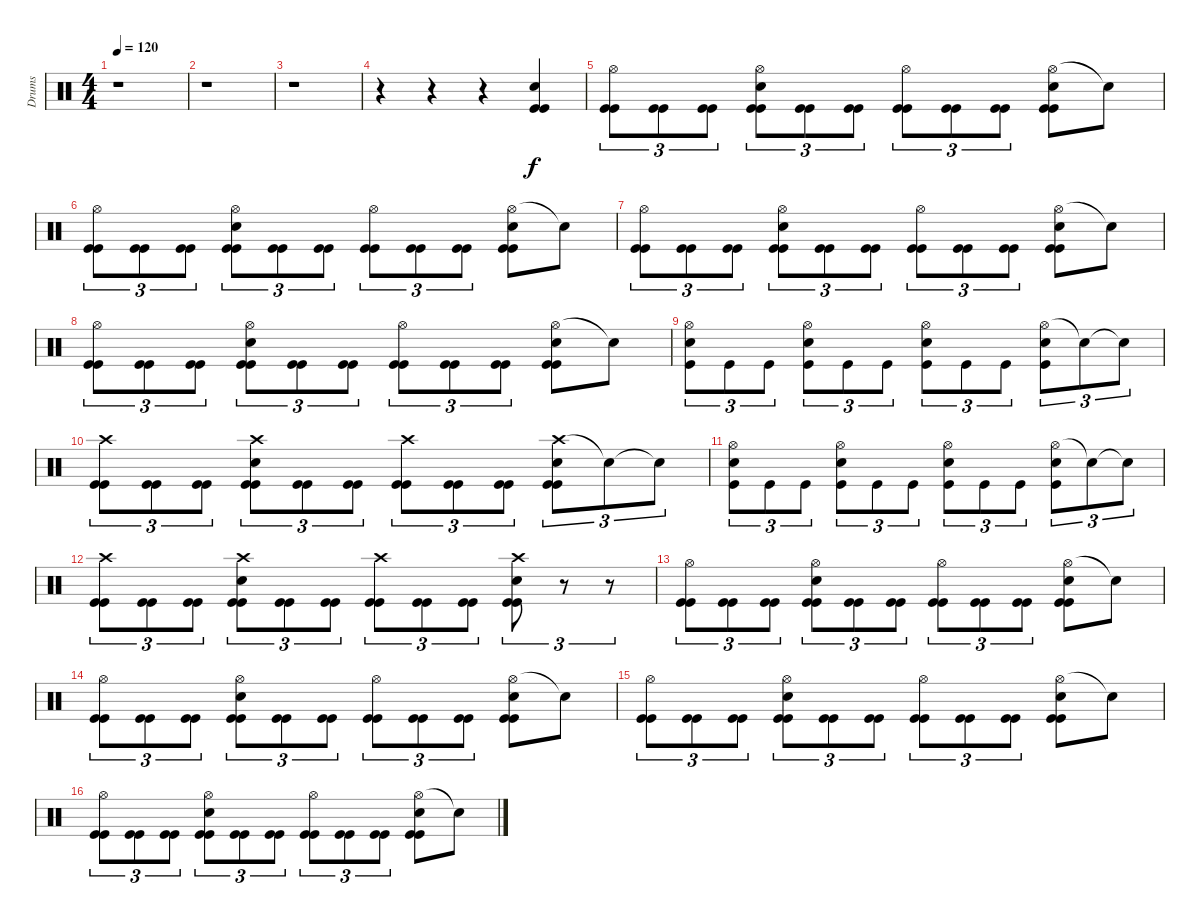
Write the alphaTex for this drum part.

\track ("Drums" "Drums") {instrument percussion}
\staff {score}
\articulation defaults
\ts (4 4)
\tempo 120
\clef neutral
\ks c
r.1{dy f} |
r.1 |
r.1 |
r.4 r.4 r.4 ("Snare (hit) 2" "Kick (hit)" "Kick (hit)").4 |
("Hi-Hat (open)" "Kick (hit)" "Kick (hit)").8{tu (3 2)} ("Kick (hit)" "Kick (hit)").8{tu (3 2)} ("Kick (hit)" "Kick (hit)").8{tu (3 2)} ("Hi-Hat (open)" "Snare (hit) 2" "Kick (hit)" "Kick (hit)").8{tu (3 2)} ("Kick (hit)" "Kick (hit)").8{tu (3 2)} ("Kick (hit)" "Kick (hit)").8{tu (3 2)} ("Hi-Hat (open)" "Kick (hit)" "Kick (hit)").8{tu (3 2)} ("Kick (hit)" "Kick (hit)").8{tu (3 2)} ("Kick (hit)" "Kick (hit)").8{tu (3 2)} ("Hi-Hat (open)" "Snare (hit) 2" "Kick (hit)" "Kick (hit)").8 "Snare (hit)"{t}.8 |
("Hi-Hat (open)" "Kick (hit)" "Kick (hit)").8{tu (3 2)} ("Kick (hit)" "Kick (hit)").8{tu (3 2)} ("Kick (hit)" "Kick (hit)").8{tu (3 2)} ("Hi-Hat (open)" "Snare (hit) 2" "Kick (hit)" "Kick (hit)").8{tu (3 2)} ("Kick (hit)" "Kick (hit)").8{tu (3 2)} ("Kick (hit)" "Kick (hit)").8{tu (3 2)} ("Hi-Hat (open)" "Kick (hit)" "Kick (hit)").8{tu (3 2)} ("Kick (hit)" "Kick (hit)").8{tu (3 2)} ("Kick (hit)" "Kick (hit)").8{tu (3 2)} ("Hi-Hat (open)" "Snare (hit) 2" "Kick (hit)" "Kick (hit)").8 "Snare (hit)"{t}.8 |
("Hi-Hat (open)" "Kick (hit)" "Kick (hit)").8{tu (3 2)} ("Kick (hit)" "Kick (hit)").8{tu (3 2)} ("Kick (hit)" "Kick (hit)").8{tu (3 2)} ("Hi-Hat (open)" "Snare (hit) 2" "Kick (hit)" "Kick (hit)").8{tu (3 2)} ("Kick (hit)" "Kick (hit)").8{tu (3 2)} ("Kick (hit)" "Kick (hit)").8{tu (3 2)} ("Hi-Hat (open)" "Kick (hit)" "Kick (hit)").8{tu (3 2)} ("Kick (hit)" "Kick (hit)").8{tu (3 2)} ("Kick (hit)" "Kick (hit)").8{tu (3 2)} ("Hi-Hat (open)" "Snare (hit) 2" "Kick (hit)" "Kick (hit)").8 "Snare (hit)"{t}.8 |
("Hi-Hat (open)" "Kick (hit)" "Kick (hit)").8{tu (3 2)} ("Kick (hit)" "Kick (hit)").8{tu (3 2)} ("Kick (hit)" "Kick (hit)").8{tu (3 2)} ("Hi-Hat (open)" "Snare (hit) 2" "Kick (hit)" "Kick (hit)").8{tu (3 2)} ("Kick (hit)" "Kick (hit)").8{tu (3 2)} ("Kick (hit)" "Kick (hit)").8{tu (3 2)} ("Hi-Hat (open)" "Kick (hit)" "Kick (hit)").8{tu (3 2)} ("Kick (hit)" "Kick (hit)").8{tu (3 2)} ("Kick (hit)" "Kick (hit)").8{tu (3 2)} ("Hi-Hat (open)" "Snare (hit) 2" "Kick (hit)" "Kick (hit)").8 "Snare (hit)"{t}.8 |
("Hi-Hat (open)" "Snare (hit) 2" "Kick (hit)").8{tu (3 2)} "Kick (hit)".8{tu (3 2)} "Kick (hit)".8{tu (3 2)} ("Hi-Hat (open)" "Snare (hit) 2" "Kick (hit)").8{tu (3 2)} "Kick (hit)".8{tu (3 2)} "Kick (hit)".8{tu (3 2)} ("Hi-Hat (open)" "Snare (hit) 2" "Kick (hit)").8{tu (3 2)} "Kick (hit)".8{tu (3 2)} "Kick (hit)".8{tu (3 2)} ("Hi-Hat (open)" "Snare (hit) 2" "Kick (hit)").8{tu (3 2)} "Snare (hit)"{t}.8{tu (3 2)} "Snare (hit)"{t}.8{tu (3 2)} |
("Crash high (hit)" "Kick (hit)" "Kick (hit)").8{tu (3 2)} ("Kick (hit)" "Kick (hit)").8{tu (3 2)} ("Kick (hit)" "Kick (hit)").8{tu (3 2)} ("Crash high (hit)" "Snare (hit) 2" "Kick (hit)" "Kick (hit)").8{tu (3 2)} ("Kick (hit)" "Kick (hit)").8{tu (3 2)} ("Kick (hit)" "Kick (hit)").8{tu (3 2)} ("Crash high (hit)" "Kick (hit)" "Kick (hit)").8{tu (3 2)} ("Kick (hit)" "Kick (hit)").8{tu (3 2)} ("Kick (hit)" "Kick (hit)").8{tu (3 2)} ("Crash high (hit)" "Snare (hit) 2" "Kick (hit)" "Kick (hit)").8{tu (3 2)} "Snare (hit)"{t}.8{tu (3 2)} "Snare (hit)"{t}.8{tu (3 2)} |
("Hi-Hat (open)" "Snare (hit) 2" "Kick (hit)").8{tu (3 2)} "Kick (hit)".8{tu (3 2)} "Kick (hit)".8{tu (3 2)} ("Hi-Hat (open)" "Snare (hit) 2" "Kick (hit)").8{tu (3 2)} "Kick (hit)".8{tu (3 2)} "Kick (hit)".8{tu (3 2)} ("Hi-Hat (open)" "Snare (hit) 2" "Kick (hit)").8{tu (3 2)} "Kick (hit)".8{tu (3 2)} "Kick (hit)".8{tu (3 2)} ("Hi-Hat (open)" "Snare (hit) 2" "Kick (hit)").8{tu (3 2)} "Snare (hit)"{t}.8{tu (3 2)} "Snare (hit)"{t}.8{tu (3 2)} |
("Crash high (hit)" "Kick (hit)" "Kick (hit)").8{tu (3 2)} ("Kick (hit)" "Kick (hit)").8{tu (3 2)} ("Kick (hit)" "Kick (hit)").8{tu (3 2)} ("Crash high (hit)" "Snare (hit) 2" "Kick (hit)" "Kick (hit)").8{tu (3 2)} ("Kick (hit)" "Kick (hit)").8{tu (3 2)} ("Kick (hit)" "Kick (hit)").8{tu (3 2)} ("Crash high (hit)" "Kick (hit)" "Kick (hit)").8{tu (3 2)} ("Kick (hit)" "Kick (hit)").8{tu (3 2)} ("Kick (hit)" "Kick (hit)").8{tu (3 2)} ("Crash high (hit)" "Snare (hit) 2" "Kick (hit)" "Kick (hit)").8{tu (3 2)} r.8{tu (3 2)} r.8{tu (3 2)} |
("Hi-Hat (open)" "Kick (hit)" "Kick (hit)").8{tu (3 2)} ("Kick (hit)" "Kick (hit)").8{tu (3 2)} ("Kick (hit)" "Kick (hit)").8{tu (3 2)} ("Hi-Hat (open)" "Snare (hit) 2" "Kick (hit)" "Kick (hit)").8{tu (3 2)} ("Kick (hit)" "Kick (hit)").8{tu (3 2)} ("Kick (hit)" "Kick (hit)").8{tu (3 2)} ("Hi-Hat (open)" "Kick (hit)" "Kick (hit)").8{tu (3 2)} ("Kick (hit)" "Kick (hit)").8{tu (3 2)} ("Kick (hit)" "Kick (hit)").8{tu (3 2)} ("Hi-Hat (open)" "Snare (hit) 2" "Kick (hit)" "Kick (hit)").8 "Snare (hit)"{t}.8 |
("Hi-Hat (open)" "Kick (hit)" "Kick (hit)").8{tu (3 2)} ("Kick (hit)" "Kick (hit)").8{tu (3 2)} ("Kick (hit)" "Kick (hit)").8{tu (3 2)} ("Hi-Hat (open)" "Snare (hit) 2" "Kick (hit)" "Kick (hit)").8{tu (3 2)} ("Kick (hit)" "Kick (hit)").8{tu (3 2)} ("Kick (hit)" "Kick (hit)").8{tu (3 2)} ("Hi-Hat (open)" "Kick (hit)" "Kick (hit)").8{tu (3 2)} ("Kick (hit)" "Kick (hit)").8{tu (3 2)} ("Kick (hit)" "Kick (hit)").8{tu (3 2)} ("Hi-Hat (open)" "Snare (hit) 2" "Kick (hit)" "Kick (hit)").8 "Snare (hit)"{t}.8 |
("Hi-Hat (open)" "Kick (hit)" "Kick (hit)").8{tu (3 2)} ("Kick (hit)" "Kick (hit)").8{tu (3 2)} ("Kick (hit)" "Kick (hit)").8{tu (3 2)} ("Hi-Hat (open)" "Snare (hit) 2" "Kick (hit)" "Kick (hit)").8{tu (3 2)} ("Kick (hit)" "Kick (hit)").8{tu (3 2)} ("Kick (hit)" "Kick (hit)").8{tu (3 2)} ("Hi-Hat (open)" "Kick (hit)" "Kick (hit)").8{tu (3 2)} ("Kick (hit)" "Kick (hit)").8{tu (3 2)} ("Kick (hit)" "Kick (hit)").8{tu (3 2)} ("Hi-Hat (open)" "Snare (hit) 2" "Kick (hit)" "Kick (hit)").8 "Snare (hit)"{t}.8 |
("Hi-Hat (open)" "Kick (hit)" "Kick (hit)").8{tu (3 2)} ("Kick (hit)" "Kick (hit)").8{tu (3 2)} ("Kick (hit)" "Kick (hit)").8{tu (3 2)} ("Hi-Hat (open)" "Snare (hit) 2" "Kick (hit)" "Kick (hit)").8{tu (3 2)} ("Kick (hit)" "Kick (hit)").8{tu (3 2)} ("Kick (hit)" "Kick (hit)").8{tu (3 2)} ("Hi-Hat (open)" "Kick (hit)" "Kick (hit)").8{tu (3 2)} ("Kick (hit)" "Kick (hit)").8{tu (3 2)} ("Kick (hit)" "Kick (hit)").8{tu (3 2)} ("Hi-Hat (open)" "Snare (hit) 2" "Kick (hit)" "Kick (hit)").8 "Snare (hit)"{t}.8
